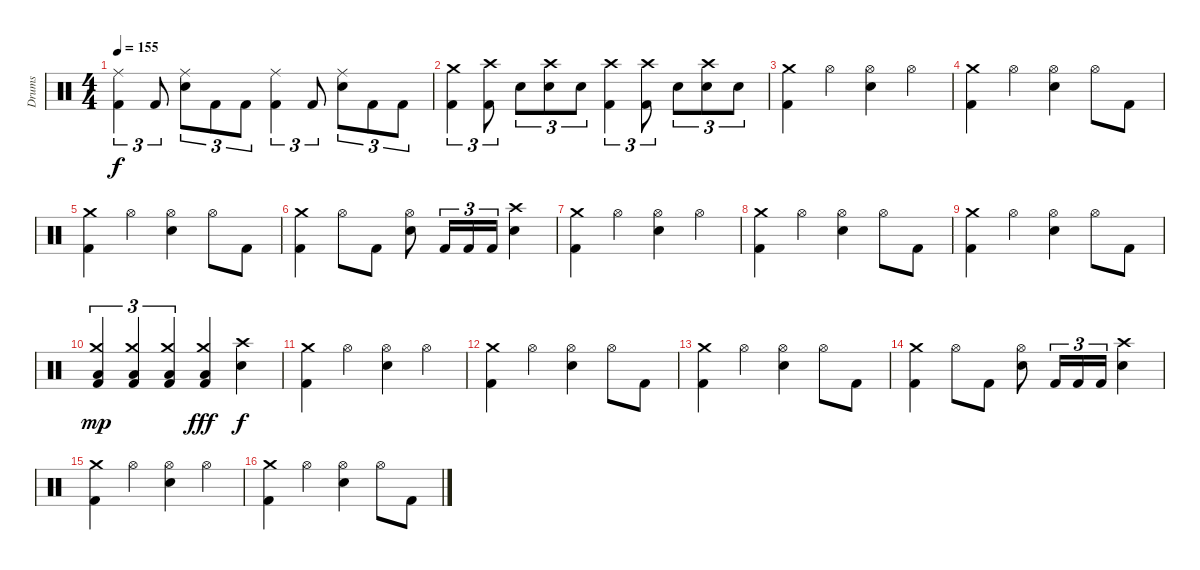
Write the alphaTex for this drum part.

\track ("Drums" "Drums") {instrument percussion}
\staff {score}
\articulation defaults
\ts (4 4)
\tempo 155
\clef neutral
\ks c
("Kick (hit) 2" "Ride (middle)").4{tu (3 2) dy f} "Kick (hit) 2".8{tu (3 2)} ("Electric Snare (hit)" "Ride (middle)").8{tu (3 2)} "Kick (hit) 2".8{tu (3 2)} "Kick (hit) 2".8{tu (3 2)} ("Kick (hit) 2" "Ride (middle)").4{tu (3 2)} "Kick (hit) 2".8{tu (3 2)} ("Electric Snare (hit)" "Ride (middle)").8{tu (3 2)} "Kick (hit) 2".8{tu (3 2)} "Kick (hit) 2".8{tu (3 2)} |
("Kick (hit) 2" "Crash medium (hit)").4{tu (3 2)} ("Kick (hit) 2" "Crash high (hit)").8{tu (3 2)} "Electric Snare (hit)".8{tu (3 2)} ("Electric Snare (hit)" "Crash high (hit)").8{tu (3 2)} "Electric Snare (hit)".8{tu (3 2)} ("Kick (hit) 2" "Crash high (hit)").4{tu (3 2)} ("Kick (hit) 2" "Crash high (hit)").8{tu (3 2)} "Electric Snare (hit)".8{tu (3 2)} ("Electric Snare (hit)" "Crash high (hit)").8{tu (3 2)} "Electric Snare (hit)".8{tu (3 2)} |
("Kick (hit) 2" "Crash medium (hit)").4 "Hi-Hat (open)".4 ("Electric Snare (hit)" "Hi-Hat (open)").4 "Hi-Hat (open)".4 |
("Kick (hit) 2" "Crash medium (hit)").4 "Hi-Hat (open)".4 ("Electric Snare (hit)" "Hi-Hat (open)").4 "Hi-Hat (open)".8 "Kick (hit) 2".8 |
("Kick (hit) 2" "Crash medium (hit)").4 "Hi-Hat (open)".4 ("Electric Snare (hit)" "Hi-Hat (open)").4 "Hi-Hat (open)".8 "Kick (hit) 2".8 |
("Kick (hit) 2" "Crash medium (hit)").4 "Hi-Hat (open)".8 "Kick (hit) 2".8 ("Electric Snare (hit)" "Hi-Hat (open)").8 "Kick (hit) 2".16{tu (3 2)} "Kick (hit) 2".16{tu (3 2)} "Kick (hit) 2".16{tu (3 2)} ("Electric Snare (hit)" "Crash high (hit)").4 |
("Kick (hit) 2" "Crash medium (hit)").4 "Hi-Hat (open)".4 ("Electric Snare (hit)" "Hi-Hat (open)").4 "Hi-Hat (open)".4 |
("Kick (hit) 2" "Crash medium (hit)").4 "Hi-Hat (open)".4 ("Electric Snare (hit)" "Hi-Hat (open)").4 "Hi-Hat (open)".8 "Kick (hit) 2".8 |
("Kick (hit) 2" "Crash medium (hit)").4 "Hi-Hat (open)".4 ("Electric Snare (hit)" "Hi-Hat (open)").4 "Hi-Hat (open)".8 "Kick (hit) 2".8 |
("Kick (hit) 2" "Low Tom (hit)" "Crash medium (hit)").4{tu (3 2) dy mp} ("Kick (hit) 2" "Low Tom (hit)" "Crash medium (hit)").4{tu (3 2)} ("Kick (hit) 2" "Low Tom (hit)" "Crash medium (hit)").4{tu (3 2)} ("Kick (hit) 2" "Low Tom (hit)" "Crash medium (hit)").4{dy fff} ("Electric Snare (hit)" "Crash high (hit)").4{dy f} |
("Kick (hit) 2" "Crash medium (hit)").4 "Hi-Hat (open)".4 ("Electric Snare (hit)" "Hi-Hat (open)").4 "Hi-Hat (open)".4 |
("Kick (hit) 2" "Crash medium (hit)").4 "Hi-Hat (open)".4 ("Electric Snare (hit)" "Hi-Hat (open)").4 "Hi-Hat (open)".8 "Kick (hit) 2".8 |
("Kick (hit) 2" "Crash medium (hit)").4 "Hi-Hat (open)".4 ("Electric Snare (hit)" "Hi-Hat (open)").4 "Hi-Hat (open)".8 "Kick (hit) 2".8 |
("Kick (hit) 2" "Crash medium (hit)").4 "Hi-Hat (open)".8 "Kick (hit) 2".8 ("Electric Snare (hit)" "Hi-Hat (open)").8 "Kick (hit) 2".16{tu (3 2)} "Kick (hit) 2".16{tu (3 2)} "Kick (hit) 2".16{tu (3 2)} ("Electric Snare (hit)" "Crash high (hit)").4 |
("Kick (hit) 2" "Crash medium (hit)").4 "Hi-Hat (open)".4 ("Electric Snare (hit)" "Hi-Hat (open)").4 "Hi-Hat (open)".4 |
("Kick (hit) 2" "Crash medium (hit)").4 "Hi-Hat (open)".4 ("Electric Snare (hit)" "Hi-Hat (open)").4 "Hi-Hat (open)".8 "Kick (hit) 2".8
